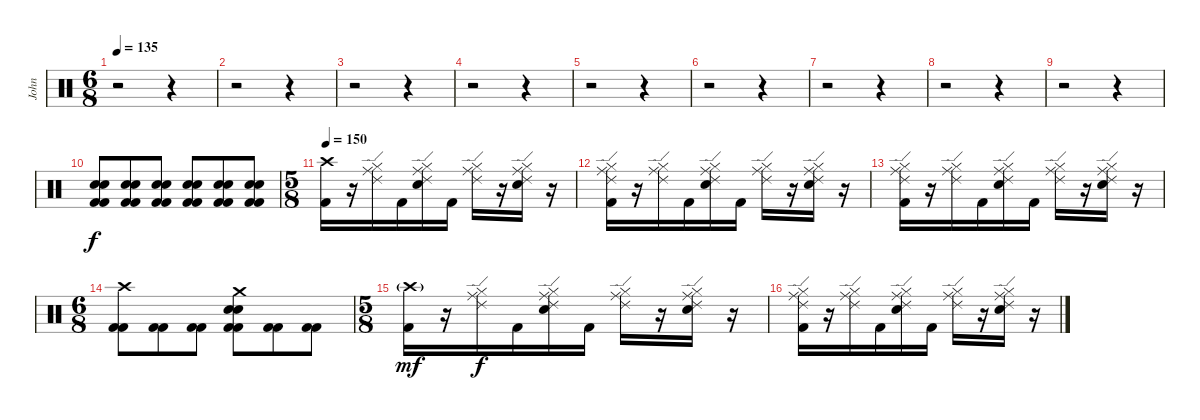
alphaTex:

\track ("John" "John") {instrument percussion}
\staff {score}
\articulation defaults
\ts (6 8)
\tempo 135
\clef neutral
\ks c
r.2{dy f} r.4 |
r.2 r.4 |
r.2 r.4 |
r.2 r.4 |
r.2 r.4 |
r.2 r.4 |
r.2 r.4 |
r.2 r.4 |
r.2 r.4 |
("Electric Snare (hit)" "Electric Snare (hit)" "Kick (hit) 2" "Kick (hit) 2").8 ("Electric Snare (hit)" "Electric Snare (hit)" "Kick (hit) 2" "Kick (hit) 2").8 ("Electric Snare (hit)" "Electric Snare (hit)" "Kick (hit) 2" "Kick (hit) 2").8 ("Electric Snare (hit)" "Electric Snare (hit)" "Kick (hit) 2" "Kick (hit) 2").8 ("Electric Snare (hit)" "Electric Snare (hit)" "Kick (hit) 2" "Kick (hit) 2").8 ("Electric Snare (hit)" "Electric Snare (hit)" "Kick (hit) 2" "Kick (hit) 2").8 |
\ts (5 8)
\tempo 150
("Crash high (hit)" "Kick (hit) 2").16 r.16 ("Ride (middle)" "Ride (edge) 2" "Hi-Hat (closed)").16 "Kick (hit) 2".16 ("Ride (middle)" "Electric Snare (hit)" "Ride (edge) 2" "Hi-Hat (closed)").16 "Kick (hit) 2".16 ("Ride (middle)" "Ride (edge) 2" "Hi-Hat (closed)").16 r.16 ("Ride (middle)" "Electric Snare (hit)" "Ride (edge) 2" "Hi-Hat (closed)").16 r.16 |
("Ride (middle)" "Kick (hit) 2" "Ride (edge) 2" "Hi-Hat (closed)").16 r.16 ("Ride (middle)" "Ride (edge) 2" "Hi-Hat (closed)").16 "Kick (hit) 2".16 ("Ride (middle)" "Electric Snare (hit)" "Ride (edge) 2" "Hi-Hat (closed)").16 "Kick (hit) 2".16 ("Ride (middle)" "Ride (edge) 2" "Hi-Hat (closed)").16 r.16 ("Ride (middle)" "Electric Snare (hit)" "Ride (edge) 2" "Hi-Hat (closed)").16 r.16 |
("Ride (middle)" "Kick (hit) 2" "Ride (edge) 2" "Hi-Hat (closed)").16 r.16 ("Ride (middle)" "Ride (edge) 2" "Hi-Hat (closed)").16 "Kick (hit) 2".16 ("Ride (middle)" "Electric Snare (hit)" "Ride (edge) 2" "Hi-Hat (closed)").16 "Kick (hit) 2".16 ("Ride (middle)" "Ride (edge) 2" "Hi-Hat (closed)").16 r.16 ("Ride (middle)" "Electric Snare (hit)" "Ride (edge) 2" "Hi-Hat (closed)").16 r.16 |
\ts (6 8)
("Crash high (hit)" "Kick (hit) 2" "Kick (hit) 2").8 ("Kick (hit) 2" "Kick (hit) 2").8 ("Kick (hit) 2" "Kick (hit) 2").8 ("Crash medium (hit)" "Electric Snare (hit)" "Electric Snare (hit)" "Kick (hit) 2" "Kick (hit) 2").8 ("Kick (hit) 2" "Kick (hit) 2").8 ("Kick (hit) 2" "Kick (hit) 2").8 |
\ts (5 8)
("Crash high (hit)"{g} "Kick (hit) 2").16{dy mf} r.16 ("Ride (middle)" "Ride (edge) 2" "Hi-Hat (closed)").16{dy f} "Kick (hit) 2".16 ("Ride (middle)" "Electric Snare (hit)" "Ride (edge) 2" "Hi-Hat (closed)").16 "Kick (hit) 2".16 ("Ride (middle)" "Ride (edge) 2" "Hi-Hat (closed)").16 r.16 ("Ride (middle)" "Electric Snare (hit)" "Ride (edge) 2" "Hi-Hat (closed)").16 r.16 |
("Ride (middle)" "Kick (hit) 2" "Ride (edge) 2" "Hi-Hat (closed)").16 r.16 ("Ride (middle)" "Ride (edge) 2" "Hi-Hat (closed)").16 "Kick (hit) 2".16 ("Ride (middle)" "Electric Snare (hit)" "Ride (edge) 2" "Hi-Hat (closed)").16 "Kick (hit) 2".16 ("Ride (middle)" "Ride (edge) 2" "Hi-Hat (closed)").16 r.16 ("Ride (middle)" "Electric Snare (hit)" "Ride (edge) 2" "Hi-Hat (closed)").16 r.16
